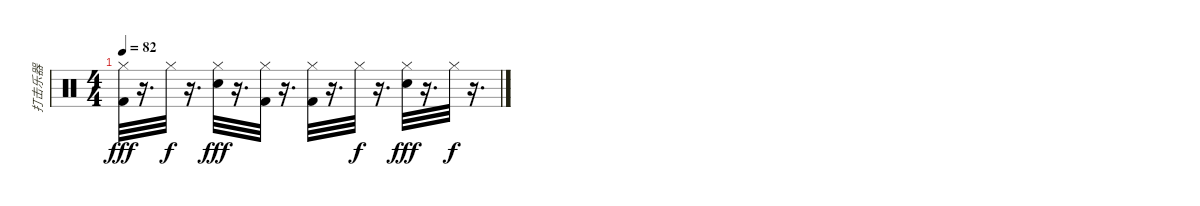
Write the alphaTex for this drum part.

\track ("打击乐器" "打击乐器") {instrument percussion}
\staff {score}
\articulation defaults
\ts (4 4)
\tempo 82
\clef neutral
\ks c
("Kick (hit) 2" "Hi-Hat (closed)").32{dy fff} r.16{d} "Hi-Hat (closed)".32{dy f} r.16{d} ("Hi-Hat (closed)" "Electric Snare (hit)").32{dy fff} r.16{d} ("Kick (hit) 2" "Hi-Hat (closed)").32 r.16{d} ("Kick (hit) 2" "Hi-Hat (closed)").32 r.16{d} "Hi-Hat (closed)".32{dy f} r.16{d} ("Hi-Hat (closed)" "Electric Snare (hit)").32{dy fff} r.16{d} "Hi-Hat (closed)".32{dy f} r.16{d}
